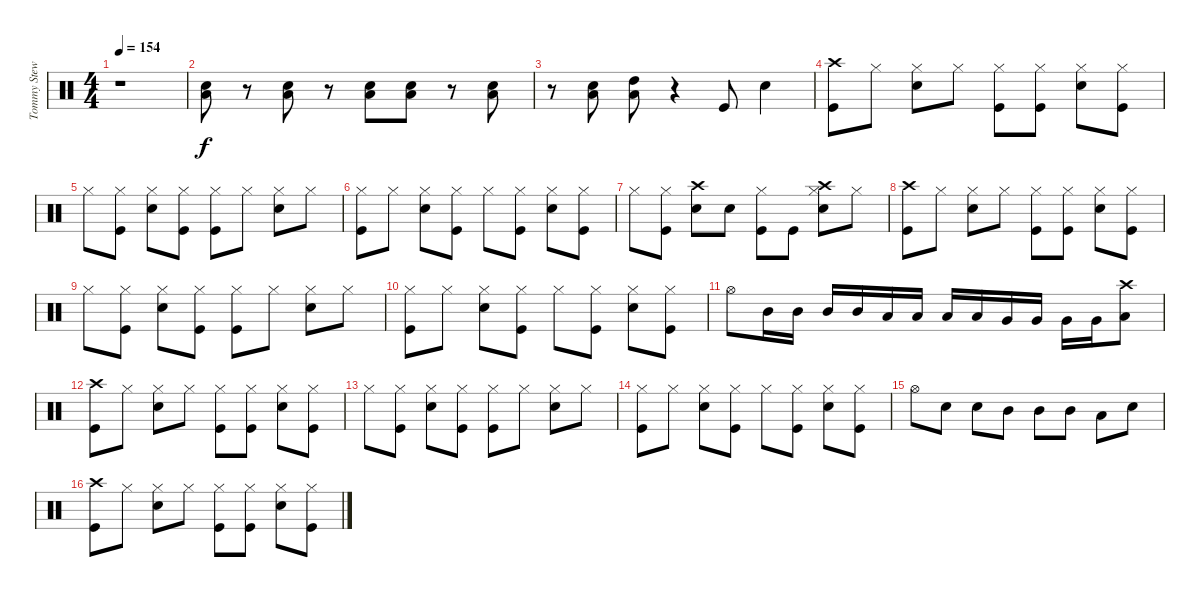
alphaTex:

\track ("Tommy Stewart" "Tommy Stew") {instrument percussion}
\staff {score}
\articulation defaults
\ts (4 4)
\tempo 154
\clef neutral
\ks c
r.1{dy f} |
("Snare (hit) 2" "Low Tom (hit)").8 r.8 ("Snare (hit) 2" "Low Tom (hit)").8 r.8 ("Snare (hit) 2" "Low Tom (hit)").8 ("Snare (hit) 2" "Low Tom (hit)").8 r.8 ("Snare (hit) 2" "Low Tom (hit)").8 |
r.8 ("Snare (hit) 2" "Low Tom (hit)").8 ("High Tom (hit)" "Low Tom (hit)").8 r.4 "Kick (hit)".8 "Snare (hit) 2".4 |
("Crash high (hit)" "Kick (hit)").8 "Hi-Hat (closed)".8 ("Hi-Hat (closed)" "Snare (hit) 2").8 "Hi-Hat (closed)".8 ("Hi-Hat (closed)" "Kick (hit)").8 ("Hi-Hat (closed)" "Kick (hit)").8 ("Hi-Hat (closed)" "Snare (hit) 2").8 ("Hi-Hat (closed)" "Kick (hit)").8 |
"Hi-Hat (closed)".8 ("Hi-Hat (closed)" "Kick (hit)").8 ("Hi-Hat (closed)" "Snare (hit) 2").8 ("Hi-Hat (closed)" "Kick (hit)").8 ("Hi-Hat (closed)" "Kick (hit)").8 "Hi-Hat (closed)".8 ("Hi-Hat (closed)" "Snare (hit) 2").8 "Hi-Hat (closed)".8 |
("Hi-Hat (closed)" "Kick (hit)").8 "Hi-Hat (closed)".8 ("Hi-Hat (closed)" "Snare (hit) 2").8 ("Hi-Hat (closed)" "Kick (hit)").8 "Hi-Hat (closed)".8 ("Hi-Hat (closed)" "Kick (hit)").8 ("Hi-Hat (closed)" "Snare (hit) 2").8 ("Hi-Hat (closed)" "Kick (hit)").8 |
"Hi-Hat (closed)".8 ("Hi-Hat (closed)" "Kick (hit)").8 ("Crash high (hit)" "Snare (hit) 2").8 "Snare (hit) 2".8 ("Hi-Hat (closed)" "Kick (hit)").8 "Kick (hit)".8 ("Crash high (hit)" "Hi-Hat (closed)" "Snare (hit) 2").8 "Hi-Hat (closed)".8 |
("Crash high (hit)" "Kick (hit)").8 "Hi-Hat (closed)".8 ("Hi-Hat (closed)" "Snare (hit) 2").8 "Hi-Hat (closed)".8 ("Hi-Hat (closed)" "Kick (hit)").8 ("Hi-Hat (closed)" "Kick (hit)").8 ("Hi-Hat (closed)" "Snare (hit) 2").8 ("Hi-Hat (closed)" "Kick (hit)").8 |
"Hi-Hat (closed)".8 ("Hi-Hat (closed)" "Kick (hit)").8 ("Hi-Hat (closed)" "Snare (hit) 2").8 ("Hi-Hat (closed)" "Kick (hit)").8 ("Hi-Hat (closed)" "Kick (hit)").8 "Hi-Hat (closed)".8 ("Hi-Hat (closed)" "Snare (hit) 2").8 "Hi-Hat (closed)".8 |
("Hi-Hat (closed)" "Kick (hit)").8 "Hi-Hat (closed)".8 ("Hi-Hat (closed)" "Snare (hit) 2").8 ("Hi-Hat (closed)" "Kick (hit)").8 "Hi-Hat (closed)".8 ("Hi-Hat (closed)" "Kick (hit)").8 ("Hi-Hat (closed)" "Snare (hit) 2").8 ("Hi-Hat (closed)" "Kick (hit)").8 |
"Hi-Hat (open)".8 "Mid Tom (hit)".16 "Mid Tom (hit)".16 "Mid Tom (hit)".16 "Mid Tom (hit)".16 "Low Tom (hit)".16 "Low Tom (hit)".16 "Low Tom (hit)".16 "Low Tom (hit)".16 "Very Low Tom (hit)".16 "Very Low Tom (hit)".16 "Very Low Tom (hit)".16 "Very Low Tom (hit)".16 ("Crash high (hit)" "Low Floor Tom (hit)").8 |
("Crash high (hit)" "Kick (hit)").8 "Hi-Hat (closed)".8 ("Hi-Hat (closed)" "Snare (hit) 2").8 "Hi-Hat (closed)".8 ("Hi-Hat (closed)" "Kick (hit)").8 ("Hi-Hat (closed)" "Kick (hit)").8 ("Hi-Hat (closed)" "Snare (hit) 2").8 ("Hi-Hat (closed)" "Kick (hit)").8 |
"Hi-Hat (closed)".8 ("Hi-Hat (closed)" "Kick (hit)").8 ("Hi-Hat (closed)" "Snare (hit) 2").8 ("Hi-Hat (closed)" "Kick (hit)").8 ("Hi-Hat (closed)" "Kick (hit)").8 "Hi-Hat (closed)".8 ("Hi-Hat (closed)" "Snare (hit) 2").8 "Hi-Hat (closed)".8 |
("Hi-Hat (closed)" "Kick (hit)").8 "Hi-Hat (closed)".8 ("Hi-Hat (closed)" "Snare (hit) 2").8 ("Hi-Hat (closed)" "Kick (hit)").8 "Hi-Hat (closed)".8 ("Hi-Hat (closed)" "Kick (hit)").8 ("Hi-Hat (closed)" "Snare (hit) 2").8 ("Hi-Hat (closed)" "Kick (hit)").8 |
"Hi-Hat (open)".8 "Snare (hit) 2".8 "Snare (hit) 2".8 "Mid Tom (hit)".8 "Mid Tom (hit)".8 "Mid Tom (hit)".8 "Low Tom (hit)".8 "Snare (hit) 2".8 |
("Crash high (hit)" "Kick (hit)").8 "Hi-Hat (closed)".8 ("Hi-Hat (closed)" "Snare (hit) 2").8 "Hi-Hat (closed)".8 ("Hi-Hat (closed)" "Kick (hit)").8 ("Hi-Hat (closed)" "Kick (hit)").8 ("Hi-Hat (closed)" "Snare (hit) 2").8 ("Hi-Hat (closed)" "Kick (hit)").8
